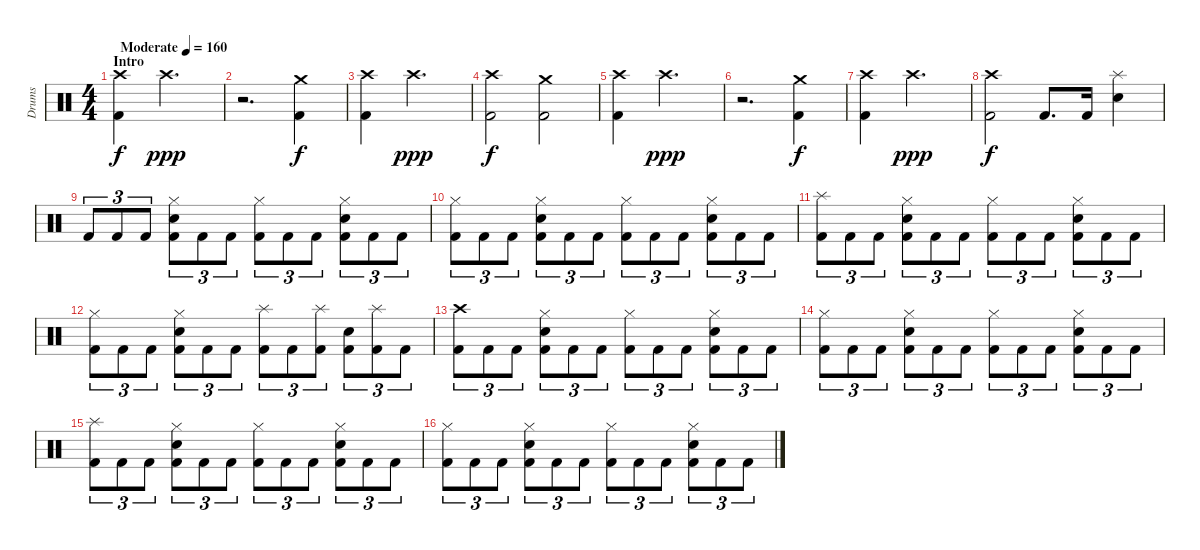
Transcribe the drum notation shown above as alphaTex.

\track ("Drums" "Drums") {instrument percussion}
\staff {score}
\articulation defaults
\ts (4 4)
\section ("" "Intro")
\tempo (160 "Moderate")
\clef neutral
\ks c
("Kick (hit) 2" "Crash high (hit)").4{dy f} "Crash high (hit)".2{d dy ppp} |
r.2{d} ("Kick (hit) 2" "Crash medium (hit)").4{dy f} |
("Kick (hit) 2" "Crash high (hit)").4 "Crash high (hit)".2{d dy ppp} |
("Kick (hit) 2" "Crash high (hit)").2{dy f} ("Kick (hit) 2" "Crash medium (hit)").2 |
("Kick (hit) 2" "Crash high (hit)").4 "Crash high (hit)".2{d dy ppp} |
r.2{d} ("Kick (hit) 2" "Crash medium (hit)").4{dy f} |
("Kick (hit) 2" "Crash high (hit)").4 "Crash high (hit)".2{d dy ppp} |
("Kick (hit) 2" "Crash high (hit)").2{dy f} "Kick (hit) 2".8{d} "Kick (hit) 2".16 ("Splash (hit)" "Electric Snare (hit)").4 |
"Kick (hit) 2".8{tu (3 2)} "Kick (hit) 2".8{tu (3 2)} "Kick (hit) 2".8{tu (3 2)} ("Kick (hit) 2" "Hi-Hat (closed)" "Electric Snare (hit)").8{tu (3 2)} "Kick (hit) 2".8{tu (3 2)} "Kick (hit) 2".8{tu (3 2)} ("Kick (hit) 2" "Hi-Hat (closed)").8{tu (3 2)} "Kick (hit) 2".8{tu (3 2)} "Kick (hit) 2".8{tu (3 2)} ("Kick (hit) 2" "Hi-Hat (closed)" "Electric Snare (hit)").8{tu (3 2)} "Kick (hit) 2".8{tu (3 2)} "Kick (hit) 2".8{tu (3 2)} |
("Kick (hit) 2" "Hi-Hat (closed)").8{tu (3 2)} "Kick (hit) 2".8{tu (3 2)} "Kick (hit) 2".8{tu (3 2)} ("Kick (hit) 2" "Hi-Hat (closed)" "Electric Snare (hit)").8{tu (3 2)} "Kick (hit) 2".8{tu (3 2)} "Kick (hit) 2".8{tu (3 2)} ("Kick (hit) 2" "Hi-Hat (closed)").8{tu (3 2)} "Kick (hit) 2".8{tu (3 2)} "Kick (hit) 2".8{tu (3 2)} ("Kick (hit) 2" "Hi-Hat (closed)" "Electric Snare (hit)").8{tu (3 2)} "Kick (hit) 2".8{tu (3 2)} "Kick (hit) 2".8{tu (3 2)} |
("Kick (hit) 2" "Splash (hit)").8{tu (3 2)} "Kick (hit) 2".8{tu (3 2)} "Kick (hit) 2".8{tu (3 2)} ("Kick (hit) 2" "Hi-Hat (closed)" "Electric Snare (hit)").8{tu (3 2)} "Kick (hit) 2".8{tu (3 2)} "Kick (hit) 2".8{tu (3 2)} ("Kick (hit) 2" "Hi-Hat (closed)").8{tu (3 2)} "Kick (hit) 2".8{tu (3 2)} "Kick (hit) 2".8{tu (3 2)} ("Kick (hit) 2" "Hi-Hat (closed)" "Electric Snare (hit)").8{tu (3 2)} "Kick (hit) 2".8{tu (3 2)} "Kick (hit) 2".8{tu (3 2)} |
("Kick (hit) 2" "Hi-Hat (closed)").8{tu (3 2)} "Kick (hit) 2".8{tu (3 2)} "Kick (hit) 2".8{tu (3 2)} ("Kick (hit) 2" "Hi-Hat (closed)" "Electric Snare (hit)").8{tu (3 2)} "Kick (hit) 2".8{tu (3 2)} "Kick (hit) 2".8{tu (3 2)} ("Kick (hit) 2" "Splash (hit)").8{tu (3 2)} "Kick (hit) 2".8{tu (3 2)} ("Kick (hit) 2" "Splash (hit)").8{tu (3 2)} ("Kick (hit) 2" "Electric Snare (hit)").8{tu (3 2)} ("Kick (hit) 2" "Splash (hit)").8{tu (3 2)} "Kick (hit) 2".8{tu (3 2)} |
("Kick (hit) 2" "Crash high (hit)").8{tu (3 2)} "Kick (hit) 2".8{tu (3 2)} "Kick (hit) 2".8{tu (3 2)} ("Kick (hit) 2" "Hi-Hat (closed)" "Electric Snare (hit)").8{tu (3 2)} "Kick (hit) 2".8{tu (3 2)} "Kick (hit) 2".8{tu (3 2)} ("Kick (hit) 2" "Hi-Hat (closed)").8{tu (3 2)} "Kick (hit) 2".8{tu (3 2)} "Kick (hit) 2".8{tu (3 2)} ("Kick (hit) 2" "Hi-Hat (closed)" "Electric Snare (hit)").8{tu (3 2)} "Kick (hit) 2".8{tu (3 2)} "Kick (hit) 2".8{tu (3 2)} |
("Kick (hit) 2" "Hi-Hat (closed)").8{tu (3 2)} "Kick (hit) 2".8{tu (3 2)} "Kick (hit) 2".8{tu (3 2)} ("Kick (hit) 2" "Hi-Hat (closed)" "Electric Snare (hit)").8{tu (3 2)} "Kick (hit) 2".8{tu (3 2)} "Kick (hit) 2".8{tu (3 2)} ("Kick (hit) 2" "Hi-Hat (closed)").8{tu (3 2)} "Kick (hit) 2".8{tu (3 2)} "Kick (hit) 2".8{tu (3 2)} ("Kick (hit) 2" "Hi-Hat (closed)" "Electric Snare (hit)").8{tu (3 2)} "Kick (hit) 2".8{tu (3 2)} "Kick (hit) 2".8{tu (3 2)} |
("Kick (hit) 2" "Splash (hit)").8{tu (3 2)} "Kick (hit) 2".8{tu (3 2)} "Kick (hit) 2".8{tu (3 2)} ("Kick (hit) 2" "Hi-Hat (closed)" "Electric Snare (hit)").8{tu (3 2)} "Kick (hit) 2".8{tu (3 2)} "Kick (hit) 2".8{tu (3 2)} ("Kick (hit) 2" "Hi-Hat (closed)").8{tu (3 2)} "Kick (hit) 2".8{tu (3 2)} "Kick (hit) 2".8{tu (3 2)} ("Kick (hit) 2" "Hi-Hat (closed)" "Electric Snare (hit)").8{tu (3 2)} "Kick (hit) 2".8{tu (3 2)} "Kick (hit) 2".8{tu (3 2)} |
("Kick (hit) 2" "Hi-Hat (closed)").8{tu (3 2)} "Kick (hit) 2".8{tu (3 2)} "Kick (hit) 2".8{tu (3 2)} ("Kick (hit) 2" "Hi-Hat (closed)" "Electric Snare (hit)").8{tu (3 2)} "Kick (hit) 2".8{tu (3 2)} "Kick (hit) 2".8{tu (3 2)} ("Kick (hit) 2" "Hi-Hat (closed)").8{tu (3 2)} "Kick (hit) 2".8{tu (3 2)} "Kick (hit) 2".8{tu (3 2)} ("Kick (hit) 2" "Hi-Hat (closed)" "Electric Snare (hit)").8{tu (3 2)} "Kick (hit) 2".8{tu (3 2)} "Kick (hit) 2".8{tu (3 2)}
